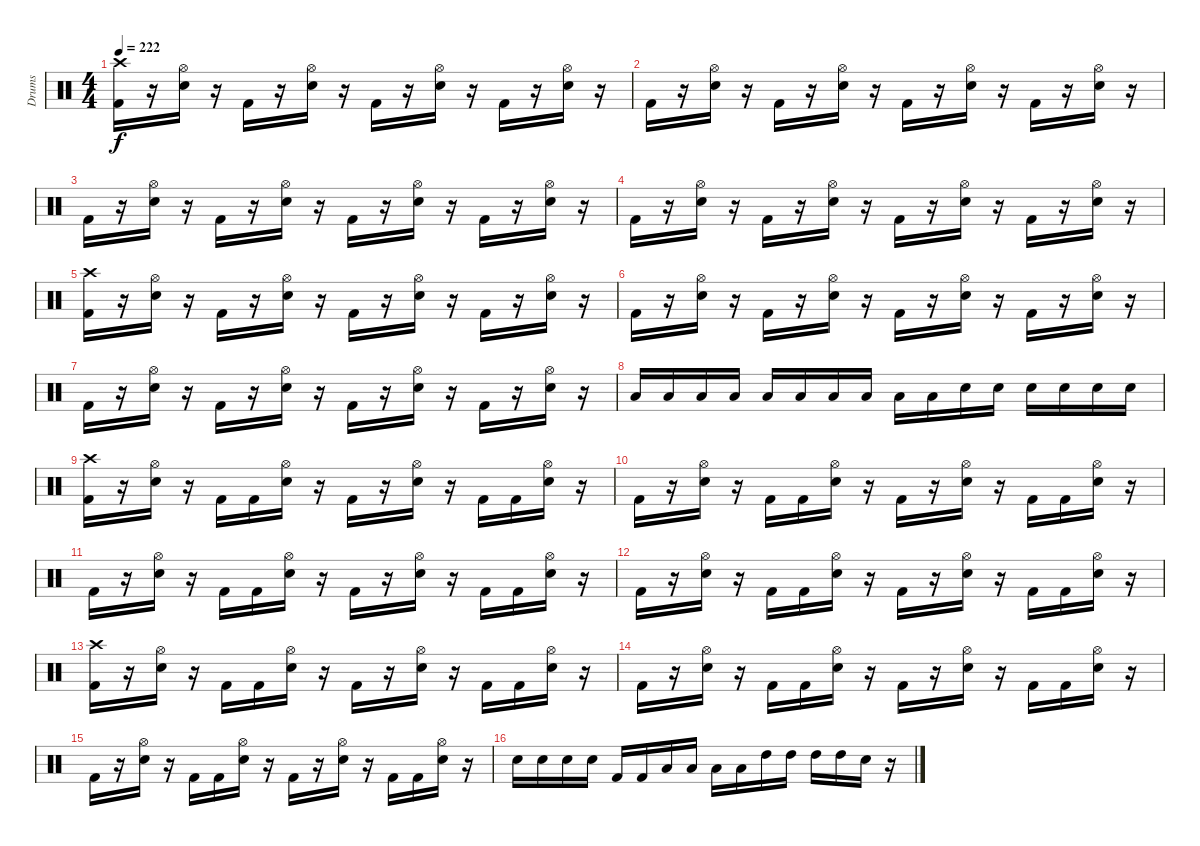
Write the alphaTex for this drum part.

\track ("Drums" "Drums") {instrument percussion}
\staff {score}
\articulation defaults
\ts (4 4)
\tempo 222
\clef neutral
\ks c
("Kick (hit) 2" "Crash high (hit)").16{dy f} r.16 ("Snare (hit) 2" "Hi-Hat (open)").16 r.16 "Kick (hit) 2".16 r.16 ("Snare (hit) 2" "Hi-Hat (open)").16 r.16 "Kick (hit) 2".16 r.16 ("Snare (hit) 2" "Hi-Hat (open)").16 r.16 "Kick (hit) 2".16 r.16 ("Snare (hit) 2" "Hi-Hat (open)").16 r.16 |
"Kick (hit) 2".16 r.16 ("Snare (hit) 2" "Hi-Hat (open)").16 r.16 "Kick (hit) 2".16 r.16 ("Snare (hit) 2" "Hi-Hat (open)").16 r.16 "Kick (hit) 2".16 r.16 ("Snare (hit) 2" "Hi-Hat (open)").16 r.16 "Kick (hit) 2".16 r.16 ("Snare (hit) 2" "Hi-Hat (open)").16 r.16 |
"Kick (hit) 2".16 r.16 ("Snare (hit) 2" "Hi-Hat (open)").16 r.16 "Kick (hit) 2".16 r.16 ("Snare (hit) 2" "Hi-Hat (open)").16 r.16 "Kick (hit) 2".16 r.16 ("Snare (hit) 2" "Hi-Hat (open)").16 r.16 "Kick (hit) 2".16 r.16 ("Snare (hit) 2" "Hi-Hat (open)").16 r.16 |
"Kick (hit) 2".16 r.16 ("Snare (hit) 2" "Hi-Hat (open)").16 r.16 "Kick (hit) 2".16 r.16 ("Snare (hit) 2" "Hi-Hat (open)").16 r.16 "Kick (hit) 2".16 r.16 ("Snare (hit) 2" "Hi-Hat (open)").16 r.16 "Kick (hit) 2".16 r.16 ("Snare (hit) 2" "Hi-Hat (open)").16 r.16 |
("Kick (hit) 2" "Crash high (hit)").16 r.16 ("Snare (hit) 2" "Hi-Hat (open)").16 r.16 "Kick (hit) 2".16 r.16 ("Snare (hit) 2" "Hi-Hat (open)").16 r.16 "Kick (hit) 2".16 r.16 ("Snare (hit) 2" "Hi-Hat (open)").16 r.16 "Kick (hit) 2".16 r.16 ("Snare (hit) 2" "Hi-Hat (open)").16 r.16 |
"Kick (hit) 2".16 r.16 ("Snare (hit) 2" "Hi-Hat (open)").16 r.16 "Kick (hit) 2".16 r.16 ("Snare (hit) 2" "Hi-Hat (open)").16 r.16 "Kick (hit) 2".16 r.16 ("Snare (hit) 2" "Hi-Hat (open)").16 r.16 "Kick (hit) 2".16 r.16 ("Snare (hit) 2" "Hi-Hat (open)").16 r.16 |
"Kick (hit) 2".16 r.16 ("Snare (hit) 2" "Hi-Hat (open)").16 r.16 "Kick (hit) 2".16 r.16 ("Snare (hit) 2" "Hi-Hat (open)").16 r.16 "Kick (hit) 2".16 r.16 ("Snare (hit) 2" "Hi-Hat (open)").16 r.16 "Kick (hit) 2".16 r.16 ("Snare (hit) 2" "Hi-Hat (open)").16 r.16 |
"Low Tom (hit)".16 "Low Tom (hit)".16 "Low Tom (hit)".16 "Low Floor Tom (hit)".16 "Low Floor Tom (hit)".16 "Low Floor Tom (hit)".16 "Low Tom (hit)".16 "Low Tom (hit)".16 "Low Tom (hit)".16 "Low Tom (hit)".16 "Snare (hit) 2".16 "Snare (hit) 2".16 "Snare (hit) 2".16 "Snare (hit) 2".16 "Snare (hit) 2".16 "Snare (hit) 2".16 |
("Kick (hit) 2" "Crash high (hit)").16 r.16 ("Snare (hit) 2" "Hi-Hat (open)").16 r.16 "Kick (hit) 2".16 "Kick (hit) 2".16 ("Snare (hit) 2" "Hi-Hat (open)").16 r.16 "Kick (hit) 2".16 r.16 ("Snare (hit) 2" "Hi-Hat (open)").16 r.16 "Kick (hit) 2".16 "Kick (hit) 2".16 ("Snare (hit) 2" "Hi-Hat (open)").16 r.16 |
"Kick (hit) 2".16 r.16 ("Snare (hit) 2" "Hi-Hat (open)").16 r.16 "Kick (hit) 2".16 "Kick (hit) 2".16 ("Snare (hit) 2" "Hi-Hat (open)").16 r.16 "Kick (hit) 2".16 r.16 ("Snare (hit) 2" "Hi-Hat (open)").16 r.16 "Kick (hit) 2".16 "Kick (hit) 2".16 ("Snare (hit) 2" "Hi-Hat (open)").16 r.16 |
"Kick (hit) 2".16 r.16 ("Snare (hit) 2" "Hi-Hat (open)").16 r.16 "Kick (hit) 2".16 "Kick (hit) 2".16 ("Snare (hit) 2" "Hi-Hat (open)").16 r.16 "Kick (hit) 2".16 r.16 ("Snare (hit) 2" "Hi-Hat (open)").16 r.16 "Kick (hit) 2".16 "Kick (hit) 2".16 ("Snare (hit) 2" "Hi-Hat (open)").16 r.16 |
"Kick (hit) 2".16 r.16 ("Snare (hit) 2" "Hi-Hat (open)").16 r.16 "Kick (hit) 2".16 "Kick (hit) 2".16 ("Snare (hit) 2" "Hi-Hat (open)").16 r.16 "Kick (hit) 2".16 r.16 ("Snare (hit) 2" "Hi-Hat (open)").16 r.16 "Kick (hit) 2".16 "Kick (hit) 2".16 ("Snare (hit) 2" "Hi-Hat (open)").16 r.16 |
("Kick (hit) 2" "Crash high (hit)").16 r.16 ("Snare (hit) 2" "Hi-Hat (open)").16 r.16 "Kick (hit) 2".16 "Kick (hit) 2".16 ("Snare (hit) 2" "Hi-Hat (open)").16 r.16 "Kick (hit) 2".16 r.16 ("Snare (hit) 2" "Hi-Hat (open)").16 r.16 "Kick (hit) 2".16 "Kick (hit) 2".16 ("Snare (hit) 2" "Hi-Hat (open)").16 r.16 |
"Kick (hit) 2".16 r.16 ("Snare (hit) 2" "Hi-Hat (open)").16 r.16 "Kick (hit) 2".16 "Kick (hit) 2".16 ("Snare (hit) 2" "Hi-Hat (open)").16 r.16 "Kick (hit) 2".16 r.16 ("Snare (hit) 2" "Hi-Hat (open)").16 r.16 "Kick (hit) 2".16 "Kick (hit) 2".16 ("Snare (hit) 2" "Hi-Hat (open)").16 r.16 |
"Kick (hit) 2".16 r.16 ("Snare (hit) 2" "Hi-Hat (open)").16 r.16 "Kick (hit) 2".16 "Kick (hit) 2".16 ("Snare (hit) 2" "Hi-Hat (open)").16 r.16 "Kick (hit) 2".16 r.16 ("Snare (hit) 2" "Hi-Hat (open)").16 r.16 "Kick (hit) 2".16 "Kick (hit) 2".16 ("Snare (hit) 2" "Hi-Hat (open)").16 r.16 |
"Snare (hit) 2".16 "Snare (hit) 2".16 "Snare (hit) 2".16 "Snare (hit) 2".16 "Kick (hit) 2".16 "Kick (hit) 2".16 "Low Floor Tom (hit)".16 "Low Floor Tom (hit)".16 "Low Tom (hit)".16 "Low Tom (hit)".16 "High Tom (hit)".16 "High Tom (hit)".16 "High Tom (hit)".16 "High Tom (hit)".16 "Snare (hit) 2".16 r.16
